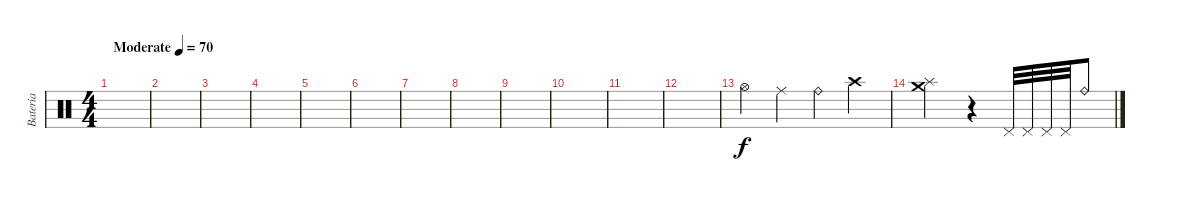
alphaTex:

\track ("Bateria" "Bateria") {instrument percussion}
\staff {score}
\articulation defaults
\ts (4 4)
\tempo (70 "Moderate")
\clef neutral
\ks c
|
|
|
|
|
|
|
|
|
|
|
|
"Hi-Hat (open)".4 "Ride (middle)".4 "Ride (bell)".4 "Crash high (hit)".4 |
("Splash (hit)" "Crash medium (hit)").2 r.4 "Pedal Hi-Hat (hit)".32 "Pedal Hi-Hat (hit)".32 "Pedal Hi-Hat (hit)".32 "Pedal Hi-Hat (hit)".32 "Ride (bell)".8
